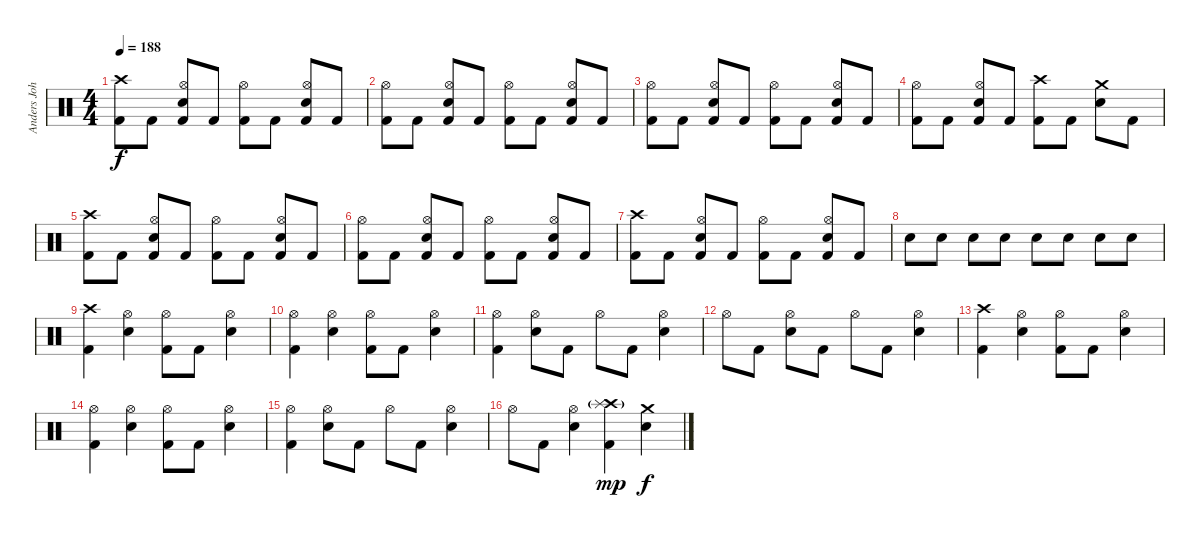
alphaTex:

\track ("Anders Johansson" "Anders Joh") {instrument percussion}
\staff {score}
\articulation defaults
\ts (4 4)
\tempo 188
\clef neutral
\ks c
("Crash high (hit)" "Kick (hit) 2").8{dy f} "Kick (hit) 2".8 ("Hi-Hat (open)" "Snare (hit) 2" "Kick (hit) 2").8 "Kick (hit) 2".8 ("Hi-Hat (open)" "Kick (hit) 2").8 "Kick (hit) 2".8 ("Hi-Hat (open)" "Snare (hit) 2" "Kick (hit) 2").8 "Kick (hit) 2".8 |
("Hi-Hat (open)" "Kick (hit) 2").8 "Kick (hit) 2".8 ("Hi-Hat (open)" "Snare (hit) 2" "Kick (hit) 2").8 "Kick (hit) 2".8 ("Hi-Hat (open)" "Kick (hit) 2").8 "Kick (hit) 2".8 ("Hi-Hat (open)" "Snare (hit) 2" "Kick (hit) 2").8 "Kick (hit) 2".8 |
("Hi-Hat (open)" "Kick (hit) 2").8 "Kick (hit) 2".8 ("Hi-Hat (open)" "Snare (hit) 2" "Kick (hit) 2").8 "Kick (hit) 2".8 ("Hi-Hat (open)" "Kick (hit) 2").8 "Kick (hit) 2".8 ("Hi-Hat (open)" "Snare (hit) 2" "Kick (hit) 2").8 "Kick (hit) 2".8 |
("Hi-Hat (open)" "Kick (hit) 2").8 "Kick (hit) 2".8 ("Hi-Hat (open)" "Snare (hit) 2" "Kick (hit) 2").8 "Kick (hit) 2".8 ("Crash high (hit)" "Kick (hit) 2").8 "Kick (hit) 2".8 ("Crash medium (hit)" "Snare (hit) 2").8 "Kick (hit) 2".8 |
("Crash high (hit)" "Kick (hit) 2").8 "Kick (hit) 2".8 ("Hi-Hat (open)" "Snare (hit) 2" "Kick (hit) 2").8 "Kick (hit) 2".8 ("Hi-Hat (open)" "Kick (hit) 2").8 "Kick (hit) 2".8 ("Hi-Hat (open)" "Snare (hit) 2" "Kick (hit) 2").8 "Kick (hit) 2".8 |
("Hi-Hat (open)" "Kick (hit) 2").8 "Kick (hit) 2".8 ("Hi-Hat (open)" "Snare (hit) 2" "Kick (hit) 2").8 "Kick (hit) 2".8 ("Hi-Hat (open)" "Kick (hit) 2").8 "Kick (hit) 2".8 ("Hi-Hat (open)" "Snare (hit) 2" "Kick (hit) 2").8 "Kick (hit) 2".8 |
("Crash high (hit)" "Kick (hit) 2").8 "Kick (hit) 2".8 ("Hi-Hat (open)" "Snare (hit) 2" "Kick (hit) 2").8 "Kick (hit) 2".8 ("Hi-Hat (open)" "Kick (hit) 2").8 "Kick (hit) 2".8 ("Hi-Hat (open)" "Snare (hit) 2" "Kick (hit) 2").8 "Kick (hit) 2".8 |
"Snare (hit) 2".8 "Snare (hit) 2".8 "Snare (hit) 2".8 "Snare (hit) 2".8 "Snare (hit) 2".8 "Snare (hit) 2".8 "Snare (hit) 2".8 "Snare (hit) 2".8 |
("Crash high (hit)" "Kick (hit) 2").4 ("Hi-Hat (open)" "Snare (hit) 2").4 ("Hi-Hat (open)" "Kick (hit) 2").8 "Kick (hit) 2".8 ("Hi-Hat (open)" "Snare (hit) 2").4 |
("Hi-Hat (open)" "Kick (hit) 2").4 ("Hi-Hat (open)" "Snare (hit) 2").4 ("Hi-Hat (open)" "Kick (hit) 2").8 "Kick (hit) 2".8 ("Hi-Hat (open)" "Snare (hit) 2").4 |
("Hi-Hat (open)" "Kick (hit) 2").4 ("Hi-Hat (open)" "Snare (hit) 2").8 "Kick (hit) 2".8 "Hi-Hat (open)".8 "Kick (hit) 2".8 ("Hi-Hat (open)" "Snare (hit) 2").4 |
"Hi-Hat (open)".8 "Kick (hit) 2".8 ("Hi-Hat (open)" "Snare (hit) 2").8 "Kick (hit) 2".8 "Hi-Hat (open)".8 "Kick (hit) 2".8 ("Hi-Hat (open)" "Snare (hit) 2").4 |
("Crash high (hit)" "Kick (hit) 2").4 ("Hi-Hat (open)" "Snare (hit) 2").4 ("Hi-Hat (open)" "Kick (hit) 2").8 "Kick (hit) 2".8 ("Hi-Hat (open)" "Snare (hit) 2").4 |
("Hi-Hat (open)" "Kick (hit) 2").4 ("Hi-Hat (open)" "Snare (hit) 2").4 ("Hi-Hat (open)" "Kick (hit) 2").8 "Kick (hit) 2".8 ("Hi-Hat (open)" "Snare (hit) 2").4 |
("Hi-Hat (open)" "Kick (hit) 2").4 ("Hi-Hat (open)" "Snare (hit) 2").8 "Kick (hit) 2".8 "Hi-Hat (open)".8 "Kick (hit) 2".8 ("Hi-Hat (open)" "Snare (hit) 2").4 |
"Hi-Hat (open)".8 "Kick (hit) 2".8 ("Hi-Hat (open)" "Snare (hit) 2").4 ("Crash high (hit)"{g} "Splash (hit)" "Kick (hit) 2").4{dy mp} ("Crash medium (hit)" "Snare (hit) 2").4{dy f}
